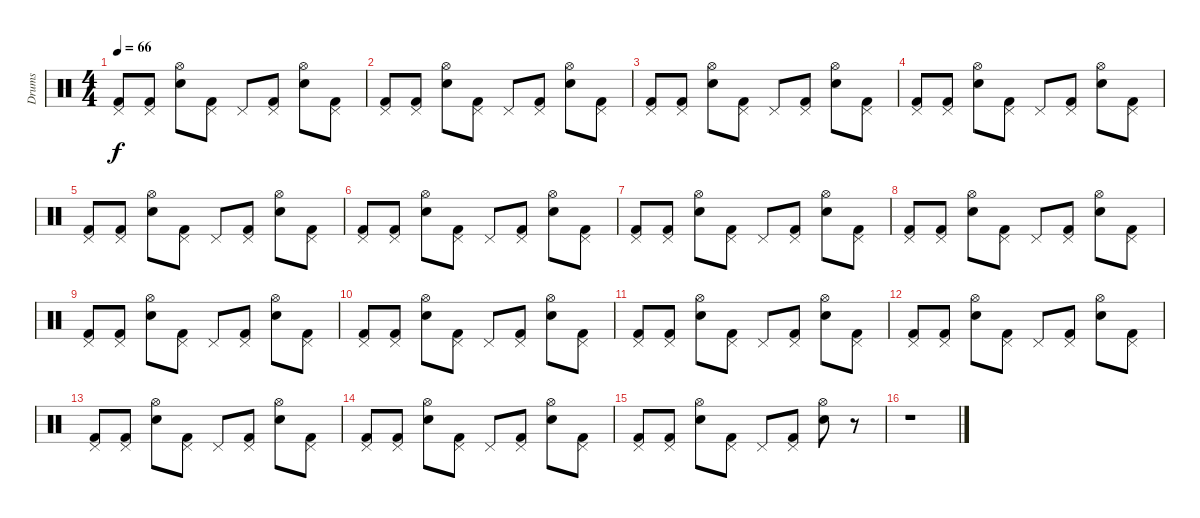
\track ("Drums" "Drums") {instrument percussion}
\staff {score}
\articulation defaults
\ts (4 4)
\tempo 66
\clef neutral
\ks c
("Pedal Hi-Hat (hit)" "Kick (hit) 2").8{dy f} ("Pedal Hi-Hat (hit)" "Kick (hit) 2").8 ("Hi-Hat (open)" "Snare (hit) 2").8 ("Pedal Hi-Hat (hit)" "Kick (hit) 2").8 "Pedal Hi-Hat (hit)".8 ("Pedal Hi-Hat (hit)" "Kick (hit) 2").8 ("Hi-Hat (open)" "Snare (hit) 2").8 ("Pedal Hi-Hat (hit)" "Kick (hit) 2").8 |
("Pedal Hi-Hat (hit)" "Kick (hit) 2").8 ("Pedal Hi-Hat (hit)" "Kick (hit) 2").8 ("Hi-Hat (open)" "Snare (hit) 2").8 ("Pedal Hi-Hat (hit)" "Kick (hit) 2").8 "Pedal Hi-Hat (hit)".8 ("Pedal Hi-Hat (hit)" "Kick (hit) 2").8 ("Hi-Hat (open)" "Snare (hit) 2").8 ("Pedal Hi-Hat (hit)" "Kick (hit) 2").8 |
("Pedal Hi-Hat (hit)" "Kick (hit) 2").8 ("Pedal Hi-Hat (hit)" "Kick (hit) 2").8 ("Hi-Hat (open)" "Snare (hit) 2").8 ("Pedal Hi-Hat (hit)" "Kick (hit) 2").8 "Pedal Hi-Hat (hit)".8 ("Pedal Hi-Hat (hit)" "Kick (hit) 2").8 ("Hi-Hat (open)" "Snare (hit) 2").8 ("Pedal Hi-Hat (hit)" "Kick (hit) 2").8 |
("Pedal Hi-Hat (hit)" "Kick (hit) 2").8 ("Pedal Hi-Hat (hit)" "Kick (hit) 2").8 ("Hi-Hat (open)" "Snare (hit) 2").8 ("Pedal Hi-Hat (hit)" "Kick (hit) 2").8 "Pedal Hi-Hat (hit)".8 ("Pedal Hi-Hat (hit)" "Kick (hit) 2").8 ("Hi-Hat (open)" "Snare (hit) 2").8 ("Pedal Hi-Hat (hit)" "Kick (hit) 2").8 |
("Pedal Hi-Hat (hit)" "Kick (hit) 2").8 ("Pedal Hi-Hat (hit)" "Kick (hit) 2").8 ("Hi-Hat (open)" "Snare (hit) 2").8 ("Pedal Hi-Hat (hit)" "Kick (hit) 2").8 "Pedal Hi-Hat (hit)".8 ("Pedal Hi-Hat (hit)" "Kick (hit) 2").8 ("Hi-Hat (open)" "Snare (hit) 2").8 ("Pedal Hi-Hat (hit)" "Kick (hit) 2").8 |
("Pedal Hi-Hat (hit)" "Kick (hit) 2").8 ("Pedal Hi-Hat (hit)" "Kick (hit) 2").8 ("Hi-Hat (open)" "Snare (hit) 2").8 ("Pedal Hi-Hat (hit)" "Kick (hit) 2").8 "Pedal Hi-Hat (hit)".8 ("Pedal Hi-Hat (hit)" "Kick (hit) 2").8 ("Hi-Hat (open)" "Snare (hit) 2").8 ("Pedal Hi-Hat (hit)" "Kick (hit) 2").8 |
("Pedal Hi-Hat (hit)" "Kick (hit) 2").8 ("Pedal Hi-Hat (hit)" "Kick (hit) 2").8 ("Hi-Hat (open)" "Snare (hit) 2").8 ("Pedal Hi-Hat (hit)" "Kick (hit) 2").8 "Pedal Hi-Hat (hit)".8 ("Pedal Hi-Hat (hit)" "Kick (hit) 2").8 ("Hi-Hat (open)" "Snare (hit) 2").8 ("Pedal Hi-Hat (hit)" "Kick (hit) 2").8 |
("Pedal Hi-Hat (hit)" "Kick (hit) 2").8 ("Pedal Hi-Hat (hit)" "Kick (hit) 2").8 ("Hi-Hat (open)" "Snare (hit) 2").8 ("Pedal Hi-Hat (hit)" "Kick (hit) 2").8 "Pedal Hi-Hat (hit)".8 ("Pedal Hi-Hat (hit)" "Kick (hit) 2").8 ("Hi-Hat (open)" "Snare (hit) 2").8 ("Pedal Hi-Hat (hit)" "Kick (hit) 2").8 |
("Pedal Hi-Hat (hit)" "Kick (hit) 2").8 ("Pedal Hi-Hat (hit)" "Kick (hit) 2").8 ("Hi-Hat (open)" "Snare (hit) 2").8 ("Pedal Hi-Hat (hit)" "Kick (hit) 2").8 "Pedal Hi-Hat (hit)".8 ("Pedal Hi-Hat (hit)" "Kick (hit) 2").8 ("Hi-Hat (open)" "Snare (hit) 2").8 ("Pedal Hi-Hat (hit)" "Kick (hit) 2").8 |
("Pedal Hi-Hat (hit)" "Kick (hit) 2").8 ("Pedal Hi-Hat (hit)" "Kick (hit) 2").8 ("Hi-Hat (open)" "Snare (hit) 2").8 ("Pedal Hi-Hat (hit)" "Kick (hit) 2").8 "Pedal Hi-Hat (hit)".8 ("Pedal Hi-Hat (hit)" "Kick (hit) 2").8 ("Hi-Hat (open)" "Snare (hit) 2").8 ("Pedal Hi-Hat (hit)" "Kick (hit) 2").8 |
("Pedal Hi-Hat (hit)" "Kick (hit) 2").8 ("Pedal Hi-Hat (hit)" "Kick (hit) 2").8 ("Hi-Hat (open)" "Snare (hit) 2").8 ("Pedal Hi-Hat (hit)" "Kick (hit) 2").8 "Pedal Hi-Hat (hit)".8 ("Pedal Hi-Hat (hit)" "Kick (hit) 2").8 ("Hi-Hat (open)" "Snare (hit) 2").8 ("Pedal Hi-Hat (hit)" "Kick (hit) 2").8 |
("Pedal Hi-Hat (hit)" "Kick (hit) 2").8 ("Pedal Hi-Hat (hit)" "Kick (hit) 2").8 ("Hi-Hat (open)" "Snare (hit) 2").8 ("Pedal Hi-Hat (hit)" "Kick (hit) 2").8 "Pedal Hi-Hat (hit)".8 ("Pedal Hi-Hat (hit)" "Kick (hit) 2").8 ("Hi-Hat (open)" "Snare (hit) 2").8 ("Pedal Hi-Hat (hit)" "Kick (hit) 2").8 |
("Pedal Hi-Hat (hit)" "Kick (hit) 2").8 ("Pedal Hi-Hat (hit)" "Kick (hit) 2").8 ("Hi-Hat (open)" "Snare (hit) 2").8 ("Pedal Hi-Hat (hit)" "Kick (hit) 2").8 "Pedal Hi-Hat (hit)".8 ("Pedal Hi-Hat (hit)" "Kick (hit) 2").8 ("Hi-Hat (open)" "Snare (hit) 2").8 ("Pedal Hi-Hat (hit)" "Kick (hit) 2").8 |
("Pedal Hi-Hat (hit)" "Kick (hit) 2").8 ("Pedal Hi-Hat (hit)" "Kick (hit) 2").8 ("Hi-Hat (open)" "Snare (hit) 2").8 ("Pedal Hi-Hat (hit)" "Kick (hit) 2").8 "Pedal Hi-Hat (hit)".8 ("Pedal Hi-Hat (hit)" "Kick (hit) 2").8 ("Hi-Hat (open)" "Snare (hit) 2").8 ("Pedal Hi-Hat (hit)" "Kick (hit) 2").8 |
("Pedal Hi-Hat (hit)" "Kick (hit) 2").8 ("Pedal Hi-Hat (hit)" "Kick (hit) 2").8 ("Hi-Hat (open)" "Snare (hit) 2").8 ("Pedal Hi-Hat (hit)" "Kick (hit) 2").8 "Pedal Hi-Hat (hit)".8 ("Pedal Hi-Hat (hit)" "Kick (hit) 2").8 ("Hi-Hat (open)" "Snare (hit) 2").8 r.8 |
r.1
